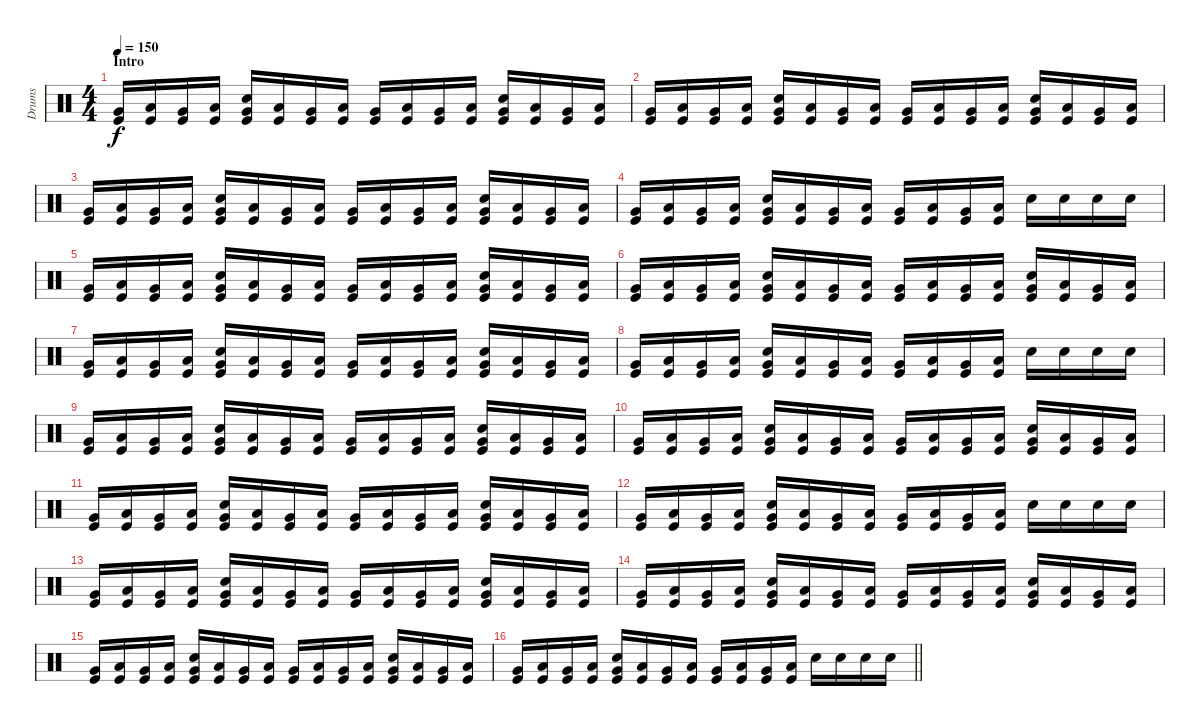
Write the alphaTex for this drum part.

\track ("Drums" "Drums") {instrument percussion}
\staff {score}
\articulation defaults
\ts (4 4)
\section ("" "Intro")
\tempo 150
\clef neutral
\ks c
("Very Low Tom (hit)" "Kick (hit)").16{dy f} ("Low Floor Tom (hit)" "Kick (hit)").16 ("Very Low Tom (hit)" "Kick (hit)").16 ("Low Floor Tom (hit)" "Kick (hit)").16 ("Snare (hit) 2" "Very Low Tom (hit)" "Kick (hit)").16 ("Low Floor Tom (hit)" "Kick (hit)").16 ("Very Low Tom (hit)" "Kick (hit)").16 ("Low Floor Tom (hit)" "Kick (hit)").16 ("Very Low Tom (hit)" "Kick (hit)").16 ("Low Floor Tom (hit)" "Kick (hit)").16 ("Very Low Tom (hit)" "Kick (hit)").16 ("Low Floor Tom (hit)" "Kick (hit)").16 ("Snare (hit) 2" "Very Low Tom (hit)" "Kick (hit)").16 ("Low Floor Tom (hit)" "Kick (hit)").16 ("Very Low Tom (hit)" "Kick (hit)").16 ("Low Floor Tom (hit)" "Kick (hit)").16 |
("Very Low Tom (hit)" "Kick (hit)").16 ("Low Floor Tom (hit)" "Kick (hit)").16 ("Very Low Tom (hit)" "Kick (hit)").16 ("Low Floor Tom (hit)" "Kick (hit)").16 ("Snare (hit) 2" "Very Low Tom (hit)" "Kick (hit)").16 ("Low Floor Tom (hit)" "Kick (hit)").16 ("Very Low Tom (hit)" "Kick (hit)").16 ("Low Floor Tom (hit)" "Kick (hit)").16 ("Very Low Tom (hit)" "Kick (hit)").16 ("Low Floor Tom (hit)" "Kick (hit)").16 ("Very Low Tom (hit)" "Kick (hit)").16 ("Low Floor Tom (hit)" "Kick (hit)").16 ("Snare (hit) 2" "Very Low Tom (hit)" "Kick (hit)").16 ("Low Floor Tom (hit)" "Kick (hit)").16 ("Very Low Tom (hit)" "Kick (hit)").16 ("Low Floor Tom (hit)" "Kick (hit)").16 |
("Very Low Tom (hit)" "Kick (hit)").16 ("Low Floor Tom (hit)" "Kick (hit)").16 ("Very Low Tom (hit)" "Kick (hit)").16 ("Low Floor Tom (hit)" "Kick (hit)").16 ("Snare (hit) 2" "Very Low Tom (hit)" "Kick (hit)").16 ("Low Floor Tom (hit)" "Kick (hit)").16 ("Very Low Tom (hit)" "Kick (hit)").16 ("Low Floor Tom (hit)" "Kick (hit)").16 ("Very Low Tom (hit)" "Kick (hit)").16 ("Low Floor Tom (hit)" "Kick (hit)").16 ("Very Low Tom (hit)" "Kick (hit)").16 ("Low Floor Tom (hit)" "Kick (hit)").16 ("Snare (hit) 2" "Very Low Tom (hit)" "Kick (hit)").16 ("Low Floor Tom (hit)" "Kick (hit)").16 ("Very Low Tom (hit)" "Kick (hit)").16 ("Low Floor Tom (hit)" "Kick (hit)").16 |
("Very Low Tom (hit)" "Kick (hit)").16 ("Low Floor Tom (hit)" "Kick (hit)").16 ("Very Low Tom (hit)" "Kick (hit)").16 ("Low Floor Tom (hit)" "Kick (hit)").16 ("Snare (hit) 2" "Very Low Tom (hit)" "Kick (hit)").16 ("Low Floor Tom (hit)" "Kick (hit)").16 ("Very Low Tom (hit)" "Kick (hit)").16 ("Low Floor Tom (hit)" "Kick (hit)").16 ("Very Low Tom (hit)" "Kick (hit)").16 ("Low Floor Tom (hit)" "Kick (hit)").16 ("Very Low Tom (hit)" "Kick (hit)").16 ("Low Floor Tom (hit)" "Kick (hit)").16 "Snare (hit) 2".16 "Snare (hit) 2".16 "Snare (hit) 2".16 "Snare (hit) 2".16 |
("Very Low Tom (hit)" "Kick (hit)").16 ("Low Floor Tom (hit)" "Kick (hit)").16 ("Very Low Tom (hit)" "Kick (hit)").16 ("Low Floor Tom (hit)" "Kick (hit)").16 ("Snare (hit) 2" "Very Low Tom (hit)" "Kick (hit)").16 ("Low Floor Tom (hit)" "Kick (hit)").16 ("Very Low Tom (hit)" "Kick (hit)").16 ("Low Floor Tom (hit)" "Kick (hit)").16 ("Very Low Tom (hit)" "Kick (hit)").16 ("Low Floor Tom (hit)" "Kick (hit)").16 ("Very Low Tom (hit)" "Kick (hit)").16 ("Low Floor Tom (hit)" "Kick (hit)").16 ("Snare (hit) 2" "Very Low Tom (hit)" "Kick (hit)").16 ("Low Floor Tom (hit)" "Kick (hit)").16 ("Very Low Tom (hit)" "Kick (hit)").16 ("Low Floor Tom (hit)" "Kick (hit)").16 |
("Very Low Tom (hit)" "Kick (hit)").16 ("Low Floor Tom (hit)" "Kick (hit)").16 ("Very Low Tom (hit)" "Kick (hit)").16 ("Low Floor Tom (hit)" "Kick (hit)").16 ("Snare (hit) 2" "Very Low Tom (hit)" "Kick (hit)").16 ("Low Floor Tom (hit)" "Kick (hit)").16 ("Very Low Tom (hit)" "Kick (hit)").16 ("Low Floor Tom (hit)" "Kick (hit)").16 ("Very Low Tom (hit)" "Kick (hit)").16 ("Low Floor Tom (hit)" "Kick (hit)").16 ("Very Low Tom (hit)" "Kick (hit)").16 ("Low Floor Tom (hit)" "Kick (hit)").16 ("Snare (hit) 2" "Very Low Tom (hit)" "Kick (hit)").16 ("Low Floor Tom (hit)" "Kick (hit)").16 ("Very Low Tom (hit)" "Kick (hit)").16 ("Low Floor Tom (hit)" "Kick (hit)").16 |
("Very Low Tom (hit)" "Kick (hit)").16 ("Low Floor Tom (hit)" "Kick (hit)").16 ("Very Low Tom (hit)" "Kick (hit)").16 ("Low Floor Tom (hit)" "Kick (hit)").16 ("Snare (hit) 2" "Very Low Tom (hit)" "Kick (hit)").16 ("Low Floor Tom (hit)" "Kick (hit)").16 ("Very Low Tom (hit)" "Kick (hit)").16 ("Low Floor Tom (hit)" "Kick (hit)").16 ("Very Low Tom (hit)" "Kick (hit)").16 ("Low Floor Tom (hit)" "Kick (hit)").16 ("Very Low Tom (hit)" "Kick (hit)").16 ("Low Floor Tom (hit)" "Kick (hit)").16 ("Snare (hit) 2" "Very Low Tom (hit)" "Kick (hit)").16 ("Low Floor Tom (hit)" "Kick (hit)").16 ("Very Low Tom (hit)" "Kick (hit)").16 ("Low Floor Tom (hit)" "Kick (hit)").16 |
("Very Low Tom (hit)" "Kick (hit)").16 ("Low Floor Tom (hit)" "Kick (hit)").16 ("Very Low Tom (hit)" "Kick (hit)").16 ("Low Floor Tom (hit)" "Kick (hit)").16 ("Snare (hit) 2" "Very Low Tom (hit)" "Kick (hit)").16 ("Low Floor Tom (hit)" "Kick (hit)").16 ("Very Low Tom (hit)" "Kick (hit)").16 ("Low Floor Tom (hit)" "Kick (hit)").16 ("Very Low Tom (hit)" "Kick (hit)").16 ("Low Floor Tom (hit)" "Kick (hit)").16 ("Very Low Tom (hit)" "Kick (hit)").16 ("Low Floor Tom (hit)" "Kick (hit)").16 "Snare (hit) 2".16 "Snare (hit) 2".16 "Snare (hit) 2".16 "Snare (hit) 2".16 |
("Very Low Tom (hit)" "Kick (hit)").16 ("Low Floor Tom (hit)" "Kick (hit)").16 ("Very Low Tom (hit)" "Kick (hit)").16 ("Low Floor Tom (hit)" "Kick (hit)").16 ("Snare (hit) 2" "Very Low Tom (hit)" "Kick (hit)").16 ("Low Floor Tom (hit)" "Kick (hit)").16 ("Very Low Tom (hit)" "Kick (hit)").16 ("Low Floor Tom (hit)" "Kick (hit)").16 ("Very Low Tom (hit)" "Kick (hit)").16 ("Low Floor Tom (hit)" "Kick (hit)").16 ("Very Low Tom (hit)" "Kick (hit)").16 ("Low Floor Tom (hit)" "Kick (hit)").16 ("Snare (hit) 2" "Very Low Tom (hit)" "Kick (hit)").16 ("Low Floor Tom (hit)" "Kick (hit)").16 ("Very Low Tom (hit)" "Kick (hit)").16 ("Low Floor Tom (hit)" "Kick (hit)").16 |
("Very Low Tom (hit)" "Kick (hit)").16 ("Low Floor Tom (hit)" "Kick (hit)").16 ("Very Low Tom (hit)" "Kick (hit)").16 ("Low Floor Tom (hit)" "Kick (hit)").16 ("Snare (hit) 2" "Very Low Tom (hit)" "Kick (hit)").16 ("Low Floor Tom (hit)" "Kick (hit)").16 ("Very Low Tom (hit)" "Kick (hit)").16 ("Low Floor Tom (hit)" "Kick (hit)").16 ("Very Low Tom (hit)" "Kick (hit)").16 ("Low Floor Tom (hit)" "Kick (hit)").16 ("Very Low Tom (hit)" "Kick (hit)").16 ("Low Floor Tom (hit)" "Kick (hit)").16 ("Snare (hit) 2" "Very Low Tom (hit)" "Kick (hit)").16 ("Low Floor Tom (hit)" "Kick (hit)").16 ("Very Low Tom (hit)" "Kick (hit)").16 ("Low Floor Tom (hit)" "Kick (hit)").16 |
("Very Low Tom (hit)" "Kick (hit)").16 ("Low Floor Tom (hit)" "Kick (hit)").16 ("Very Low Tom (hit)" "Kick (hit)").16 ("Low Floor Tom (hit)" "Kick (hit)").16 ("Snare (hit) 2" "Very Low Tom (hit)" "Kick (hit)").16 ("Low Floor Tom (hit)" "Kick (hit)").16 ("Very Low Tom (hit)" "Kick (hit)").16 ("Low Floor Tom (hit)" "Kick (hit)").16 ("Very Low Tom (hit)" "Kick (hit)").16 ("Low Floor Tom (hit)" "Kick (hit)").16 ("Very Low Tom (hit)" "Kick (hit)").16 ("Low Floor Tom (hit)" "Kick (hit)").16 ("Snare (hit) 2" "Very Low Tom (hit)" "Kick (hit)").16 ("Low Floor Tom (hit)" "Kick (hit)").16 ("Very Low Tom (hit)" "Kick (hit)").16 ("Low Floor Tom (hit)" "Kick (hit)").16 |
("Very Low Tom (hit)" "Kick (hit)").16 ("Low Floor Tom (hit)" "Kick (hit)").16 ("Very Low Tom (hit)" "Kick (hit)").16 ("Low Floor Tom (hit)" "Kick (hit)").16 ("Snare (hit) 2" "Very Low Tom (hit)" "Kick (hit)").16 ("Low Floor Tom (hit)" "Kick (hit)").16 ("Very Low Tom (hit)" "Kick (hit)").16 ("Low Floor Tom (hit)" "Kick (hit)").16 ("Very Low Tom (hit)" "Kick (hit)").16 ("Low Floor Tom (hit)" "Kick (hit)").16 ("Very Low Tom (hit)" "Kick (hit)").16 ("Low Floor Tom (hit)" "Kick (hit)").16 "Snare (hit) 2".16 "Snare (hit) 2".16 "Snare (hit) 2".16 "Snare (hit) 2".16 |
("Very Low Tom (hit)" "Kick (hit)").16 ("Low Floor Tom (hit)" "Kick (hit)").16 ("Very Low Tom (hit)" "Kick (hit)").16 ("Low Floor Tom (hit)" "Kick (hit)").16 ("Snare (hit) 2" "Very Low Tom (hit)" "Kick (hit)").16 ("Low Floor Tom (hit)" "Kick (hit)").16 ("Very Low Tom (hit)" "Kick (hit)").16 ("Low Floor Tom (hit)" "Kick (hit)").16 ("Very Low Tom (hit)" "Kick (hit)").16 ("Low Floor Tom (hit)" "Kick (hit)").16 ("Very Low Tom (hit)" "Kick (hit)").16 ("Low Floor Tom (hit)" "Kick (hit)").16 ("Snare (hit) 2" "Very Low Tom (hit)" "Kick (hit)").16 ("Low Floor Tom (hit)" "Kick (hit)").16 ("Very Low Tom (hit)" "Kick (hit)").16 ("Low Floor Tom (hit)" "Kick (hit)").16 |
("Very Low Tom (hit)" "Kick (hit)").16 ("Low Floor Tom (hit)" "Kick (hit)").16 ("Very Low Tom (hit)" "Kick (hit)").16 ("Low Floor Tom (hit)" "Kick (hit)").16 ("Snare (hit) 2" "Very Low Tom (hit)" "Kick (hit)").16 ("Low Floor Tom (hit)" "Kick (hit)").16 ("Very Low Tom (hit)" "Kick (hit)").16 ("Low Floor Tom (hit)" "Kick (hit)").16 ("Very Low Tom (hit)" "Kick (hit)").16 ("Low Floor Tom (hit)" "Kick (hit)").16 ("Very Low Tom (hit)" "Kick (hit)").16 ("Low Floor Tom (hit)" "Kick (hit)").16 ("Snare (hit) 2" "Very Low Tom (hit)" "Kick (hit)").16 ("Low Floor Tom (hit)" "Kick (hit)").16 ("Very Low Tom (hit)" "Kick (hit)").16 ("Low Floor Tom (hit)" "Kick (hit)").16 |
("Very Low Tom (hit)" "Kick (hit)").16 ("Low Floor Tom (hit)" "Kick (hit)").16 ("Very Low Tom (hit)" "Kick (hit)").16 ("Low Floor Tom (hit)" "Kick (hit)").16 ("Snare (hit) 2" "Very Low Tom (hit)" "Kick (hit)").16 ("Low Floor Tom (hit)" "Kick (hit)").16 ("Very Low Tom (hit)" "Kick (hit)").16 ("Low Floor Tom (hit)" "Kick (hit)").16 ("Very Low Tom (hit)" "Kick (hit)").16 ("Low Floor Tom (hit)" "Kick (hit)").16 ("Very Low Tom (hit)" "Kick (hit)").16 ("Low Floor Tom (hit)" "Kick (hit)").16 ("Snare (hit) 2" "Very Low Tom (hit)" "Kick (hit)").16 ("Low Floor Tom (hit)" "Kick (hit)").16 ("Very Low Tom (hit)" "Kick (hit)").16 ("Low Floor Tom (hit)" "Kick (hit)").16 |
\barLineRight lightlight
("Very Low Tom (hit)" "Kick (hit)").16 ("Low Floor Tom (hit)" "Kick (hit)").16 ("Very Low Tom (hit)" "Kick (hit)").16 ("Low Floor Tom (hit)" "Kick (hit)").16 ("Snare (hit) 2" "Very Low Tom (hit)" "Kick (hit)").16 ("Low Floor Tom (hit)" "Kick (hit)").16 ("Very Low Tom (hit)" "Kick (hit)").16 ("Low Floor Tom (hit)" "Kick (hit)").16 ("Very Low Tom (hit)" "Kick (hit)").16 ("Low Floor Tom (hit)" "Kick (hit)").16 ("Very Low Tom (hit)" "Kick (hit)").16 ("Low Floor Tom (hit)" "Kick (hit)").16 "Snare (hit) 2".16 "Snare (hit) 2".16 "Snare (hit) 2".16 "Snare (hit) 2".16
